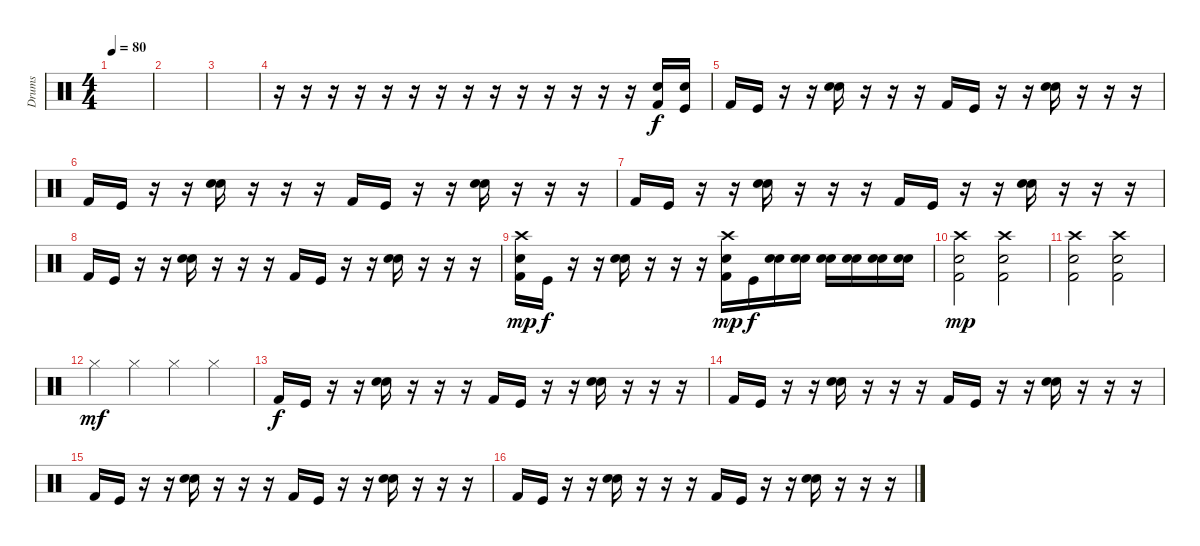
\track ("Drums" "Drums") {instrument percussion}
\staff {score}
\articulation defaults
\ts (4 4)
\tempo 80
\clef neutral
\ks c
|
|
|
r.16 r.16 r.16 r.16 r.16 r.16 r.16 r.16 r.16 r.16 r.16 r.16 r.16 r.16 ("Kick (hit) 2" "Snare (hit) 2").16 ("Kick (hit)" "Snare (hit) 2").16 |
"Kick (hit) 2".16 "Kick (hit)".16 r.16 r.16 ("Electric Snare (hit)" "Electric Snare (hit)").16 r.16 r.16 r.16 "Kick (hit) 2".16 "Kick (hit)".16 r.16 r.16 ("Electric Snare (hit)" "Electric Snare (hit)").16 r.16 r.16 r.16 |
"Kick (hit) 2".16 "Kick (hit)".16 r.16 r.16 ("Electric Snare (hit)" "Electric Snare (hit)").16 r.16 r.16 r.16 "Kick (hit) 2".16 "Kick (hit)".16 r.16 r.16 ("Electric Snare (hit)" "Electric Snare (hit)").16 r.16 r.16 r.16 |
"Kick (hit) 2".16 "Kick (hit)".16 r.16 r.16 ("Electric Snare (hit)" "Electric Snare (hit)").16 r.16 r.16 r.16 "Kick (hit) 2".16 "Kick (hit)".16 r.16 r.16 ("Electric Snare (hit)" "Electric Snare (hit)").16 r.16 r.16 r.16 |
"Kick (hit) 2".16 "Kick (hit)".16 r.16 r.16 ("Electric Snare (hit)" "Electric Snare (hit)").16 r.16 r.16 r.16 "Kick (hit) 2".16 "Kick (hit)".16 r.16 r.16 ("Electric Snare (hit)" "Electric Snare (hit)").16 r.16 r.16 r.16 |
("Crash high (hit)" "Kick (hit) 2" "Snare (hit) 2").16{dy mp} "Kick (hit)".16{dy f} r.16 r.16 ("Electric Snare (hit)" "Electric Snare (hit)").16 r.16 r.16 r.16 ("Crash high (hit)" "Kick (hit) 2" "Snare (hit) 2").16{dy mp} "Kick (hit)".16{dy f} ("Electric Snare (hit)" "Electric Snare (hit)").16 ("Electric Snare (hit)" "Electric Snare (hit)").16 ("Electric Snare (hit)" "Electric Snare (hit)").16 ("Electric Snare (hit)" "Electric Snare (hit)").16 ("Electric Snare (hit)" "Electric Snare (hit)").16 ("Electric Snare (hit)" "Electric Snare (hit)").16 |
("Crash high (hit)" "Kick (hit) 2" "Snare (hit) 2").2{dy mp} ("Crash high (hit)" "Kick (hit) 2" "Snare (hit) 2").2 |
("Crash high (hit)" "Kick (hit) 2" "Snare (hit) 2").2 ("Crash high (hit)" "Kick (hit) 2" "Snare (hit) 2").2 |
"Hi-Hat (closed)".4{dy mf} "Hi-Hat (closed)".4 "Hi-Hat (closed)".4 "Hi-Hat (closed)".4 |
"Kick (hit) 2".16{dy f} "Kick (hit)".16 r.16 r.16 ("Electric Snare (hit)" "Electric Snare (hit)").16 r.16 r.16 r.16 "Kick (hit) 2".16 "Kick (hit)".16 r.16 r.16 ("Electric Snare (hit)" "Electric Snare (hit)").16 r.16 r.16 r.16 |
"Kick (hit) 2".16 "Kick (hit)".16 r.16 r.16 ("Electric Snare (hit)" "Electric Snare (hit)").16 r.16 r.16 r.16 "Kick (hit) 2".16 "Kick (hit)".16 r.16 r.16 ("Electric Snare (hit)" "Electric Snare (hit)").16 r.16 r.16 r.16 |
"Kick (hit) 2".16 "Kick (hit)".16 r.16 r.16 ("Electric Snare (hit)" "Electric Snare (hit)").16 r.16 r.16 r.16 "Kick (hit) 2".16 "Kick (hit)".16 r.16 r.16 ("Electric Snare (hit)" "Electric Snare (hit)").16 r.16 r.16 r.16 |
"Kick (hit) 2".16 "Kick (hit)".16 r.16 r.16 ("Electric Snare (hit)" "Electric Snare (hit)").16 r.16 r.16 r.16 "Kick (hit) 2".16 "Kick (hit)".16 r.16 r.16 ("Electric Snare (hit)" "Electric Snare (hit)").16 r.16 r.16 r.16
